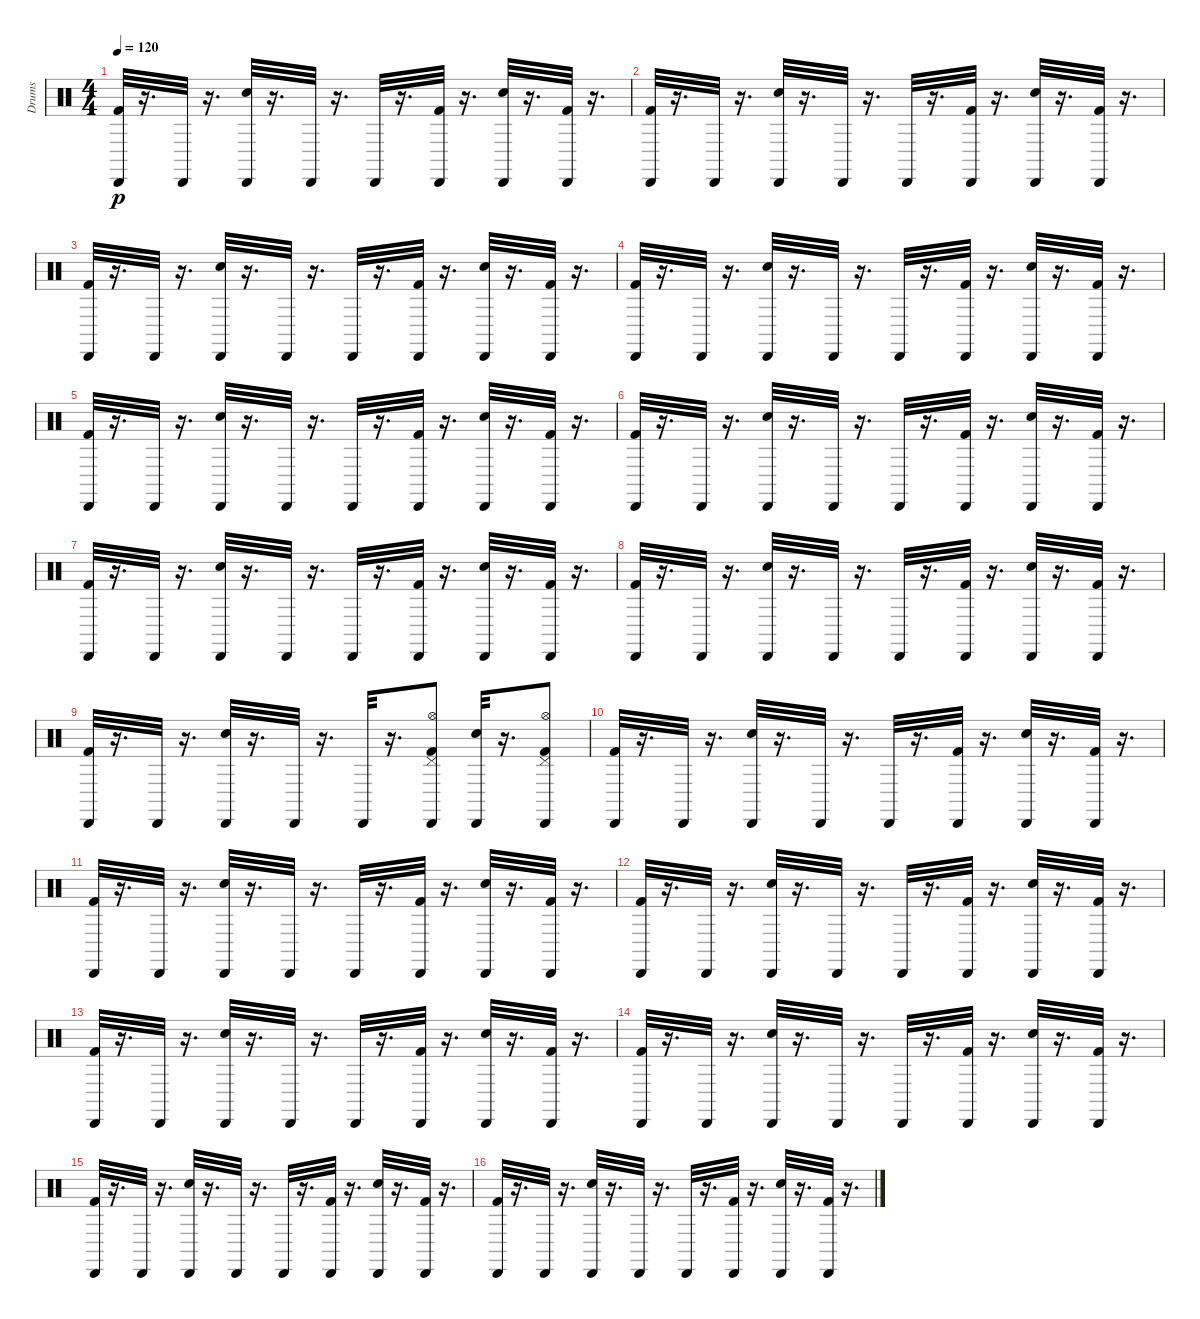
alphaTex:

\track ("Drums" "Drums") {instrument percussion}
\staff {score}
\articulation defaults
\ts (4 4)
\tempo 120
\clef neutral
\ks c
("Cabasa (hit)" "Kick (hit) 2").32{dy p} r.16{d} "Cabasa (hit)".32 r.16{d} ("Cabasa (hit)" "Electric Snare (hit)").32 r.16{d} "Cabasa (hit)".32 r.16{d} "Cabasa (hit)".32 r.16{d} ("Cabasa (hit)" "Kick (hit) 2").32 r.16{d} ("Cabasa (hit)" "Electric Snare (hit)").32 r.16{d} ("Cabasa (hit)" "Kick (hit) 2").32 r.16{d} |
("Cabasa (hit)" "Kick (hit) 2").32 r.16{d} "Cabasa (hit)".32 r.16{d} ("Cabasa (hit)" "Electric Snare (hit)").32 r.16{d} "Cabasa (hit)".32 r.16{d} "Cabasa (hit)".32 r.16{d} ("Cabasa (hit)" "Kick (hit) 2").32 r.16{d} ("Cabasa (hit)" "Electric Snare (hit)").32 r.16{d} ("Cabasa (hit)" "Kick (hit) 2").32 r.16{d} |
("Cabasa (hit)" "Kick (hit) 2").32 r.16{d} "Cabasa (hit)".32 r.16{d} ("Cabasa (hit)" "Electric Snare (hit)").32 r.16{d} "Cabasa (hit)".32 r.16{d} "Cabasa (hit)".32 r.16{d} ("Cabasa (hit)" "Kick (hit) 2").32 r.16{d} ("Cabasa (hit)" "Electric Snare (hit)").32 r.16{d} ("Cabasa (hit)" "Kick (hit) 2").32 r.16{d} |
("Cabasa (hit)" "Kick (hit) 2").32 r.16{d} "Cabasa (hit)".32 r.16{d} ("Cabasa (hit)" "Electric Snare (hit)").32 r.16{d} "Cabasa (hit)".32 r.16{d} "Cabasa (hit)".32 r.16{d} ("Cabasa (hit)" "Kick (hit) 2").32 r.16{d} ("Cabasa (hit)" "Electric Snare (hit)").32 r.16{d} ("Cabasa (hit)" "Kick (hit) 2").32 r.16{d} |
("Cabasa (hit)" "Kick (hit) 2").32 r.16{d} "Cabasa (hit)".32 r.16{d} ("Cabasa (hit)" "Electric Snare (hit)").32 r.16{d} "Cabasa (hit)".32 r.16{d} "Cabasa (hit)".32 r.16{d} ("Cabasa (hit)" "Kick (hit) 2").32 r.16{d} ("Cabasa (hit)" "Electric Snare (hit)").32 r.16{d} ("Cabasa (hit)" "Kick (hit) 2").32 r.16{d} |
("Cabasa (hit)" "Kick (hit) 2").32 r.16{d} "Cabasa (hit)".32 r.16{d} ("Cabasa (hit)" "Electric Snare (hit)").32 r.16{d} "Cabasa (hit)".32 r.16{d} "Cabasa (hit)".32 r.16{d} ("Cabasa (hit)" "Kick (hit) 2").32 r.16{d} ("Cabasa (hit)" "Electric Snare (hit)").32 r.16{d} ("Cabasa (hit)" "Kick (hit) 2").32 r.16{d} |
("Cabasa (hit)" "Kick (hit) 2").32 r.16{d} "Cabasa (hit)".32 r.16{d} ("Cabasa (hit)" "Electric Snare (hit)").32 r.16{d} "Cabasa (hit)".32 r.16{d} "Cabasa (hit)".32 r.16{d} ("Cabasa (hit)" "Kick (hit) 2").32 r.16{d} ("Cabasa (hit)" "Electric Snare (hit)").32 r.16{d} ("Cabasa (hit)" "Kick (hit) 2").32 r.16{d} |
("Cabasa (hit)" "Kick (hit) 2").32 r.16{d} "Cabasa (hit)".32 r.16{d} ("Cabasa (hit)" "Electric Snare (hit)").32 r.16{d} "Cabasa (hit)".32 r.16{d} "Cabasa (hit)".32 r.16{d} ("Cabasa (hit)" "Kick (hit) 2").32 r.16{d} ("Cabasa (hit)" "Electric Snare (hit)").32 r.16{d} ("Cabasa (hit)" "Kick (hit) 2").32 r.16{d} |
("Cabasa (hit)" "Kick (hit) 2").32 r.16{d} "Cabasa (hit)".32 r.16{d} ("Cabasa (hit)" "Electric Snare (hit)").32 r.16{d} "Cabasa (hit)".32 r.16{d} "Cabasa (hit)".32 r.16{d} ("Pedal Hi-Hat (hit)" "Hi-Hat (open)" "Cabasa (hit)" "Kick (hit) 2").8 ("Cabasa (hit)" "Electric Snare (hit)").32 r.16{d} ("Pedal Hi-Hat (hit)" "Hi-Hat (open)" "Cabasa (hit)" "Kick (hit) 2").8 |
("Cabasa (hit)" "Kick (hit) 2").32 r.16{d} "Cabasa (hit)".32 r.16{d} ("Cabasa (hit)" "Electric Snare (hit)").32 r.16{d} "Cabasa (hit)".32 r.16{d} "Cabasa (hit)".32 r.16{d} ("Cabasa (hit)" "Kick (hit) 2").32 r.16{d} ("Cabasa (hit)" "Electric Snare (hit)").32 r.16{d} ("Cabasa (hit)" "Kick (hit) 2").32 r.16{d} |
("Cabasa (hit)" "Kick (hit) 2").32 r.16{d} "Cabasa (hit)".32 r.16{d} ("Cabasa (hit)" "Electric Snare (hit)").32 r.16{d} "Cabasa (hit)".32 r.16{d} "Cabasa (hit)".32 r.16{d} ("Cabasa (hit)" "Kick (hit) 2").32 r.16{d} ("Cabasa (hit)" "Electric Snare (hit)").32 r.16{d} ("Cabasa (hit)" "Kick (hit) 2").32 r.16{d} |
("Cabasa (hit)" "Kick (hit) 2").32 r.16{d} "Cabasa (hit)".32 r.16{d} ("Cabasa (hit)" "Electric Snare (hit)").32 r.16{d} "Cabasa (hit)".32 r.16{d} "Cabasa (hit)".32 r.16{d} ("Cabasa (hit)" "Kick (hit) 2").32 r.16{d} ("Cabasa (hit)" "Electric Snare (hit)").32 r.16{d} ("Cabasa (hit)" "Kick (hit) 2").32 r.16{d} |
("Cabasa (hit)" "Kick (hit) 2").32 r.16{d} "Cabasa (hit)".32 r.16{d} ("Cabasa (hit)" "Electric Snare (hit)").32 r.16{d} "Cabasa (hit)".32 r.16{d} "Cabasa (hit)".32 r.16{d} ("Cabasa (hit)" "Kick (hit) 2").32 r.16{d} ("Cabasa (hit)" "Electric Snare (hit)").32 r.16{d} ("Cabasa (hit)" "Kick (hit) 2").32 r.16{d} |
("Cabasa (hit)" "Kick (hit) 2").32 r.16{d} "Cabasa (hit)".32 r.16{d} ("Cabasa (hit)" "Electric Snare (hit)").32 r.16{d} "Cabasa (hit)".32 r.16{d} "Cabasa (hit)".32 r.16{d} ("Cabasa (hit)" "Kick (hit) 2").32 r.16{d} ("Cabasa (hit)" "Electric Snare (hit)").32 r.16{d} ("Cabasa (hit)" "Kick (hit) 2").32 r.16{d} |
("Cabasa (hit)" "Kick (hit) 2").32 r.16{d} "Cabasa (hit)".32 r.16{d} ("Cabasa (hit)" "Electric Snare (hit)").32 r.16{d} "Cabasa (hit)".32 r.16{d} "Cabasa (hit)".32 r.16{d} ("Cabasa (hit)" "Kick (hit) 2").32 r.16{d} ("Cabasa (hit)" "Electric Snare (hit)").32 r.16{d} ("Cabasa (hit)" "Kick (hit) 2").32 r.16{d} |
("Cabasa (hit)" "Kick (hit) 2").32 r.16{d} "Cabasa (hit)".32 r.16{d} ("Cabasa (hit)" "Electric Snare (hit)").32 r.16{d} "Cabasa (hit)".32 r.16{d} "Cabasa (hit)".32 r.16{d} ("Cabasa (hit)" "Kick (hit) 2").32 r.16{d} ("Cabasa (hit)" "Electric Snare (hit)").32 r.16{d} ("Cabasa (hit)" "Kick (hit) 2").32 r.16{d}
